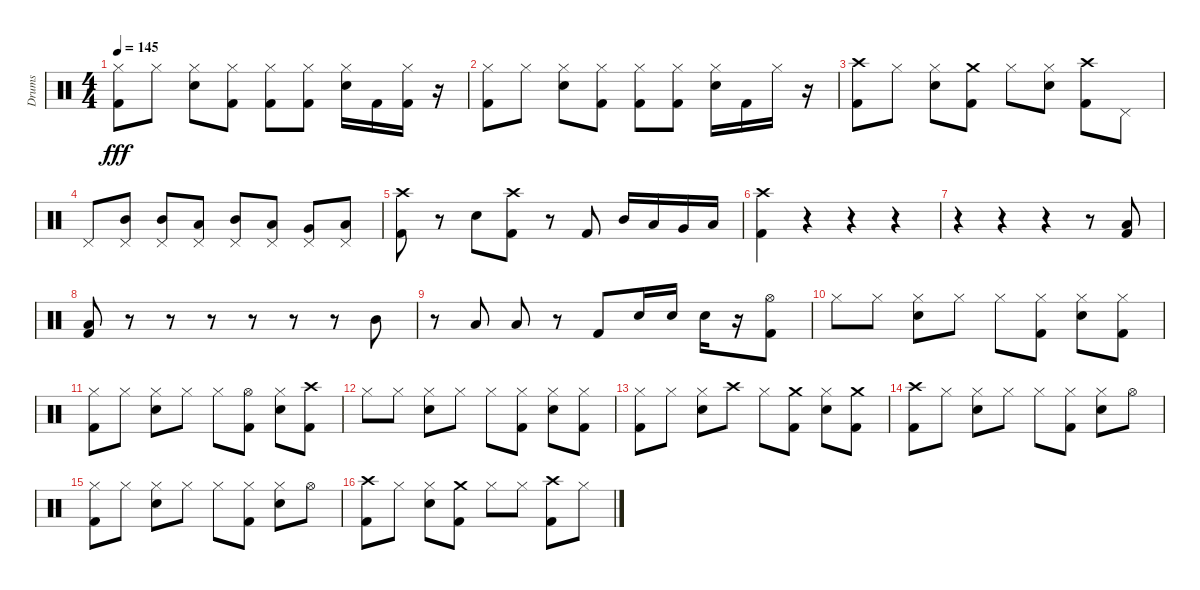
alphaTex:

\track ("Drums" "Drums") {instrument percussion}
\staff {score}
\articulation defaults
\ts (4 4)
\tempo 145
\clef neutral
\ks c
("Hi-Hat (closed)" "Kick (hit) 2").8{dy fff} "Hi-Hat (closed)".8 ("Hi-Hat (closed)" "Snare (hit) 2").8 ("Hi-Hat (closed)" "Kick (hit) 2").8 ("Hi-Hat (closed)" "Kick (hit) 2").8 ("Hi-Hat (closed)" "Kick (hit) 2").8 ("Hi-Hat (closed)" "Snare (hit) 2").16 "Kick (hit) 2".16 ("Hi-Hat (closed)" "Kick (hit) 2").16 r.16 |
("Hi-Hat (closed)" "Kick (hit) 2").8 "Hi-Hat (closed)".8 ("Hi-Hat (closed)" "Snare (hit) 2").8 ("Hi-Hat (closed)" "Kick (hit) 2").8 ("Hi-Hat (closed)" "Kick (hit) 2").8 ("Hi-Hat (closed)" "Kick (hit) 2").8 ("Hi-Hat (closed)" "Snare (hit) 2").16 "Kick (hit) 2".16 "Hi-Hat (closed)".16 r.16 |
("Crash high (hit)" "Kick (hit) 2").8 "Hi-Hat (closed)".8 ("Hi-Hat (closed)" "Snare (hit) 2").8 ("Crash medium (hit)" "Kick (hit) 2").8 "Hi-Hat (closed)".8 ("Hi-Hat (closed)" "Snare (hit) 2").8 ("Crash high (hit)" "Kick (hit) 2").8 "Pedal Hi-Hat (hit)".8 |
"Pedal Hi-Hat (hit)".8 ("Pedal Hi-Hat (hit)" "Mid Tom (hit)").8 ("Pedal Hi-Hat (hit)" "Mid Tom (hit)").8 ("Pedal Hi-Hat (hit)" "Low Tom (hit)").8 ("Pedal Hi-Hat (hit)" "Mid Tom (hit)").8 ("Pedal Hi-Hat (hit)" "Low Tom (hit)").8 ("Pedal Hi-Hat (hit)" "Very Low Tom (hit)").8 ("Pedal Hi-Hat (hit)" "Low Floor Tom (hit)").8 |
("Crash high (hit)" "Kick (hit) 2").8 r.8 "Snare (hit) 2".8 ("Crash high (hit)" "Kick (hit) 2").8 r.8 "Kick (hit) 2".8 "Mid Tom (hit)".16 "Low Tom (hit)".16 "Very Low Tom (hit)".16 "Low Floor Tom (hit)".16 |
("Crash high (hit)" "Kick (hit) 2").4 r.4 r.4 r.4 |
r.4 r.4 r.4 r.8 ("Low Floor Tom (hit)" "Kick (hit) 2").8 |
("Low Floor Tom (hit)" "Kick (hit) 2").8 r.8 r.8 r.8 r.8 r.8 r.8 "Mid Tom (hit)".8 |
r.8 "Low Tom (hit)".8 "Low Tom (hit)".8 r.8 "Kick (hit) 2".8 "Snare (hit) 2".16 "Snare (hit) 2".16 "Snare (hit) 2".16 r.16 ("Hi-Hat (open)" "Kick (hit) 2").8 |
"Hi-Hat (closed)".8 "Hi-Hat (closed)".8 ("Hi-Hat (closed)" "Snare (hit) 2").8 "Hi-Hat (closed)".8 "Hi-Hat (closed)".8 ("Hi-Hat (closed)" "Kick (hit) 2").8 ("Hi-Hat (closed)" "Snare (hit) 2").8 ("Hi-Hat (closed)" "Kick (hit) 2").8 |
("Hi-Hat (closed)" "Kick (hit) 2").8 "Hi-Hat (closed)".8 ("Hi-Hat (closed)" "Snare (hit) 2").8 "Hi-Hat (closed)".8 "Hi-Hat (closed)".8 ("Hi-Hat (open)" "Kick (hit) 2").8 ("Hi-Hat (closed)" "Snare (hit) 2").8 ("Crash high (hit)" "Kick (hit) 2").8 |
"Hi-Hat (closed)".8 "Hi-Hat (closed)".8 ("Hi-Hat (closed)" "Snare (hit) 2").8 "Hi-Hat (closed)".8 "Hi-Hat (closed)".8 ("Hi-Hat (closed)" "Kick (hit) 2").8 ("Hi-Hat (closed)" "Snare (hit) 2").8 ("Hi-Hat (closed)" "Kick (hit) 2").8 |
("Hi-Hat (closed)" "Kick (hit) 2").8 "Hi-Hat (closed)".8 ("Hi-Hat (closed)" "Snare (hit) 2").8 "Crash high (hit)".8 "Hi-Hat (closed)".8 ("Crash medium (hit)" "Kick (hit) 2").8 ("Hi-Hat (closed)" "Snare (hit) 2").8 ("Crash medium (hit)" "Kick (hit) 2").8 |
("Crash high (hit)" "Kick (hit) 2").8 "Hi-Hat (closed)".8 ("Hi-Hat (closed)" "Snare (hit) 2").8 "Hi-Hat (closed)".8 "Hi-Hat (closed)".8 ("Hi-Hat (closed)" "Kick (hit) 2").8 ("Hi-Hat (closed)" "Snare (hit) 2").8 "Hi-Hat (open)".8 |
("Hi-Hat (closed)" "Kick (hit) 2").8 "Hi-Hat (closed)".8 ("Hi-Hat (closed)" "Snare (hit) 2").8 "Hi-Hat (closed)".8 "Hi-Hat (closed)".8 ("Hi-Hat (closed)" "Kick (hit) 2").8 ("Hi-Hat (closed)" "Snare (hit) 2").8 "Hi-Hat (open)".8 |
("Crash high (hit)" "Kick (hit) 2").8 "Hi-Hat (closed)".8 ("Hi-Hat (closed)" "Snare (hit) 2").8 ("Crash medium (hit)" "Kick (hit) 2").8 "Hi-Hat (closed)".8 "Hi-Hat (closed)".8 ("Crash high (hit)" "Kick (hit) 2").8 "Hi-Hat (closed)".8
